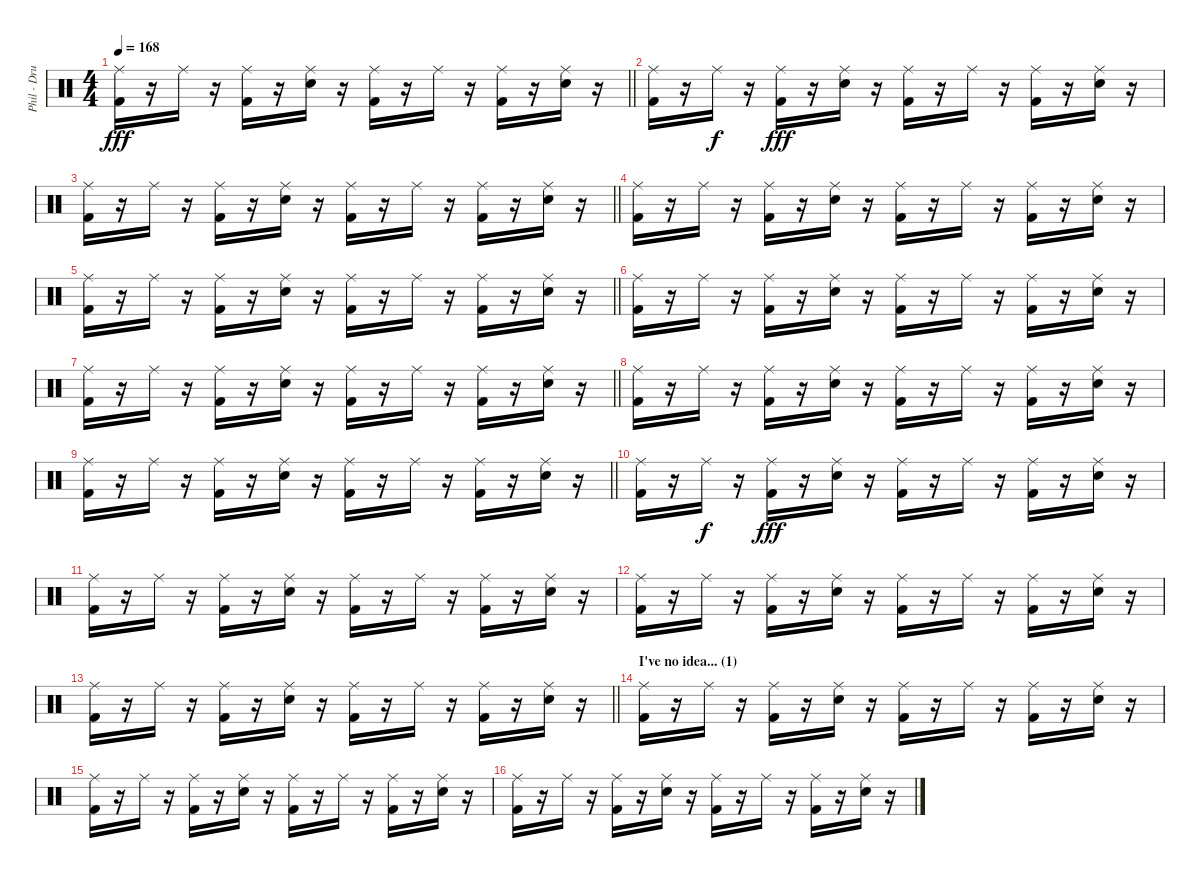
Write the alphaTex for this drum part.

\track ("Phil - Drums" "Phil - Dru") {instrument percussion}
\staff {score}
\articulation defaults
\ts (4 4)
\tempo 168
\clef neutral
\barLineRight lightlight
\ks c
("Ride (middle)" "Kick (hit) 2").16{dy fff} r.16 "Ride (middle)".16 r.16 ("Ride (middle)" "Kick (hit) 2").16 r.16 ("Ride (middle)" "Electric Snare (hit)").16 r.16 ("Ride (middle)" "Kick (hit) 2").16 r.16 "Ride (middle)".16 r.16 ("Ride (middle)" "Kick (hit) 2").16 r.16 ("Ride (middle)" "Electric Snare (hit)").16 r.16 |
("Ride (middle)" "Kick (hit) 2").16 r.16 "Ride (middle)".16{dy f} r.16 ("Ride (middle)" "Kick (hit) 2").16{dy fff} r.16 ("Ride (middle)" "Electric Snare (hit)").16 r.16 ("Ride (middle)" "Kick (hit) 2").16 r.16 "Ride (middle)".16 r.16 ("Ride (middle)" "Kick (hit) 2").16 r.16 ("Ride (middle)" "Electric Snare (hit)").16 r.16 |
\barLineRight lightlight
("Ride (middle)" "Kick (hit) 2").16 r.16 "Ride (middle)".16 r.16 ("Ride (middle)" "Kick (hit) 2").16 r.16 ("Ride (middle)" "Electric Snare (hit)").16 r.16 ("Ride (middle)" "Kick (hit) 2").16 r.16 "Ride (middle)".16 r.16 ("Ride (middle)" "Kick (hit) 2").16 r.16 ("Ride (middle)" "Electric Snare (hit)").16 r.16 |
("Ride (middle)" "Kick (hit) 2").16 r.16 "Ride (middle)".16 r.16 ("Ride (middle)" "Kick (hit) 2").16 r.16 ("Ride (middle)" "Electric Snare (hit)").16 r.16 ("Ride (middle)" "Kick (hit) 2").16 r.16 "Ride (middle)".16 r.16 ("Ride (middle)" "Kick (hit) 2").16 r.16 ("Ride (middle)" "Electric Snare (hit)").16 r.16 |
\barLineRight lightlight
("Ride (middle)" "Kick (hit) 2").16 r.16 "Ride (middle)".16 r.16 ("Ride (middle)" "Kick (hit) 2").16 r.16 ("Ride (middle)" "Electric Snare (hit)").16 r.16 ("Ride (middle)" "Kick (hit) 2").16 r.16 "Ride (middle)".16 r.16 ("Ride (middle)" "Kick (hit) 2").16 r.16 ("Ride (middle)" "Electric Snare (hit)").16 r.16 |
("Ride (middle)" "Kick (hit) 2").16 r.16 "Ride (middle)".16 r.16 ("Ride (middle)" "Kick (hit) 2").16 r.16 ("Ride (middle)" "Electric Snare (hit)").16 r.16 ("Ride (middle)" "Kick (hit) 2").16 r.16 "Ride (middle)".16 r.16 ("Ride (middle)" "Kick (hit) 2").16 r.16 ("Ride (middle)" "Electric Snare (hit)").16 r.16 |
\barLineRight lightlight
("Ride (middle)" "Kick (hit) 2").16 r.16 "Ride (middle)".16 r.16 ("Ride (middle)" "Kick (hit) 2").16 r.16 ("Ride (middle)" "Electric Snare (hit)").16 r.16 ("Ride (middle)" "Kick (hit) 2").16 r.16 "Ride (middle)".16 r.16 ("Ride (middle)" "Kick (hit) 2").16 r.16 ("Ride (middle)" "Electric Snare (hit)").16 r.16 |
("Ride (middle)" "Kick (hit) 2").16 r.16 "Ride (middle)".16 r.16 ("Ride (middle)" "Kick (hit) 2").16 r.16 ("Ride (middle)" "Electric Snare (hit)").16 r.16 ("Ride (middle)" "Kick (hit) 2").16 r.16 "Ride (middle)".16 r.16 ("Ride (middle)" "Kick (hit) 2").16 r.16 ("Ride (middle)" "Electric Snare (hit)").16 r.16 |
\barLineRight lightlight
("Ride (middle)" "Kick (hit) 2").16 r.16 "Ride (middle)".16 r.16 ("Ride (middle)" "Kick (hit) 2").16 r.16 ("Ride (middle)" "Electric Snare (hit)").16 r.16 ("Ride (middle)" "Kick (hit) 2").16 r.16 "Ride (middle)".16 r.16 ("Ride (middle)" "Kick (hit) 2").16 r.16 ("Ride (middle)" "Electric Snare (hit)").16 r.16 |
("Ride (middle)" "Kick (hit) 2").16 r.16 "Ride (middle)".16{dy f} r.16 ("Ride (middle)" "Kick (hit) 2").16{dy fff} r.16 ("Ride (middle)" "Electric Snare (hit)").16 r.16 ("Ride (middle)" "Kick (hit) 2").16 r.16 "Ride (middle)".16 r.16 ("Ride (middle)" "Kick (hit) 2").16 r.16 ("Ride (middle)" "Electric Snare (hit)").16 r.16 |
("Ride (middle)" "Kick (hit) 2").16 r.16 "Ride (middle)".16 r.16 ("Ride (middle)" "Kick (hit) 2").16 r.16 ("Ride (middle)" "Electric Snare (hit)").16 r.16 ("Ride (middle)" "Kick (hit) 2").16 r.16 "Ride (middle)".16 r.16 ("Ride (middle)" "Kick (hit) 2").16 r.16 ("Ride (middle)" "Electric Snare (hit)").16 r.16 |
("Ride (middle)" "Kick (hit) 2").16 r.16 "Ride (middle)".16 r.16 ("Ride (middle)" "Kick (hit) 2").16 r.16 ("Ride (middle)" "Electric Snare (hit)").16 r.16 ("Ride (middle)" "Kick (hit) 2").16 r.16 "Ride (middle)".16 r.16 ("Ride (middle)" "Kick (hit) 2").16 r.16 ("Ride (middle)" "Electric Snare (hit)").16 r.16 |
\barLineRight lightlight
("Ride (middle)" "Kick (hit) 2").16 r.16 "Ride (middle)".16 r.16 ("Ride (middle)" "Kick (hit) 2").16 r.16 ("Ride (middle)" "Electric Snare (hit)").16 r.16 ("Ride (middle)" "Kick (hit) 2").16 r.16 "Ride (middle)".16 r.16 ("Ride (middle)" "Kick (hit) 2").16 r.16 ("Ride (middle)" "Electric Snare (hit)").16 r.16 |
\section ("" "I've no idea... (1)")
("Ride (middle)" "Kick (hit) 2").16 r.16 "Ride (middle)".16 r.16 ("Ride (middle)" "Kick (hit) 2").16 r.16 ("Ride (middle)" "Electric Snare (hit)").16 r.16 ("Ride (middle)" "Kick (hit) 2").16 r.16 "Ride (middle)".16 r.16 ("Ride (middle)" "Kick (hit) 2").16 r.16 ("Ride (middle)" "Electric Snare (hit)").16 r.16 |
("Ride (middle)" "Kick (hit) 2").16 r.16 "Ride (middle)".16 r.16 ("Ride (middle)" "Kick (hit) 2").16 r.16 ("Ride (middle)" "Electric Snare (hit)").16 r.16 ("Ride (middle)" "Kick (hit) 2").16 r.16 "Ride (middle)".16 r.16 ("Ride (middle)" "Kick (hit) 2").16 r.16 ("Ride (middle)" "Electric Snare (hit)").16 r.16 |
("Ride (middle)" "Kick (hit) 2").16 r.16 "Ride (middle)".16 r.16 ("Ride (middle)" "Kick (hit) 2").16 r.16 ("Ride (middle)" "Electric Snare (hit)").16 r.16 ("Ride (middle)" "Kick (hit) 2").16 r.16 "Ride (middle)".16 r.16 ("Ride (middle)" "Kick (hit) 2").16 r.16 ("Ride (middle)" "Electric Snare (hit)").16 r.16
